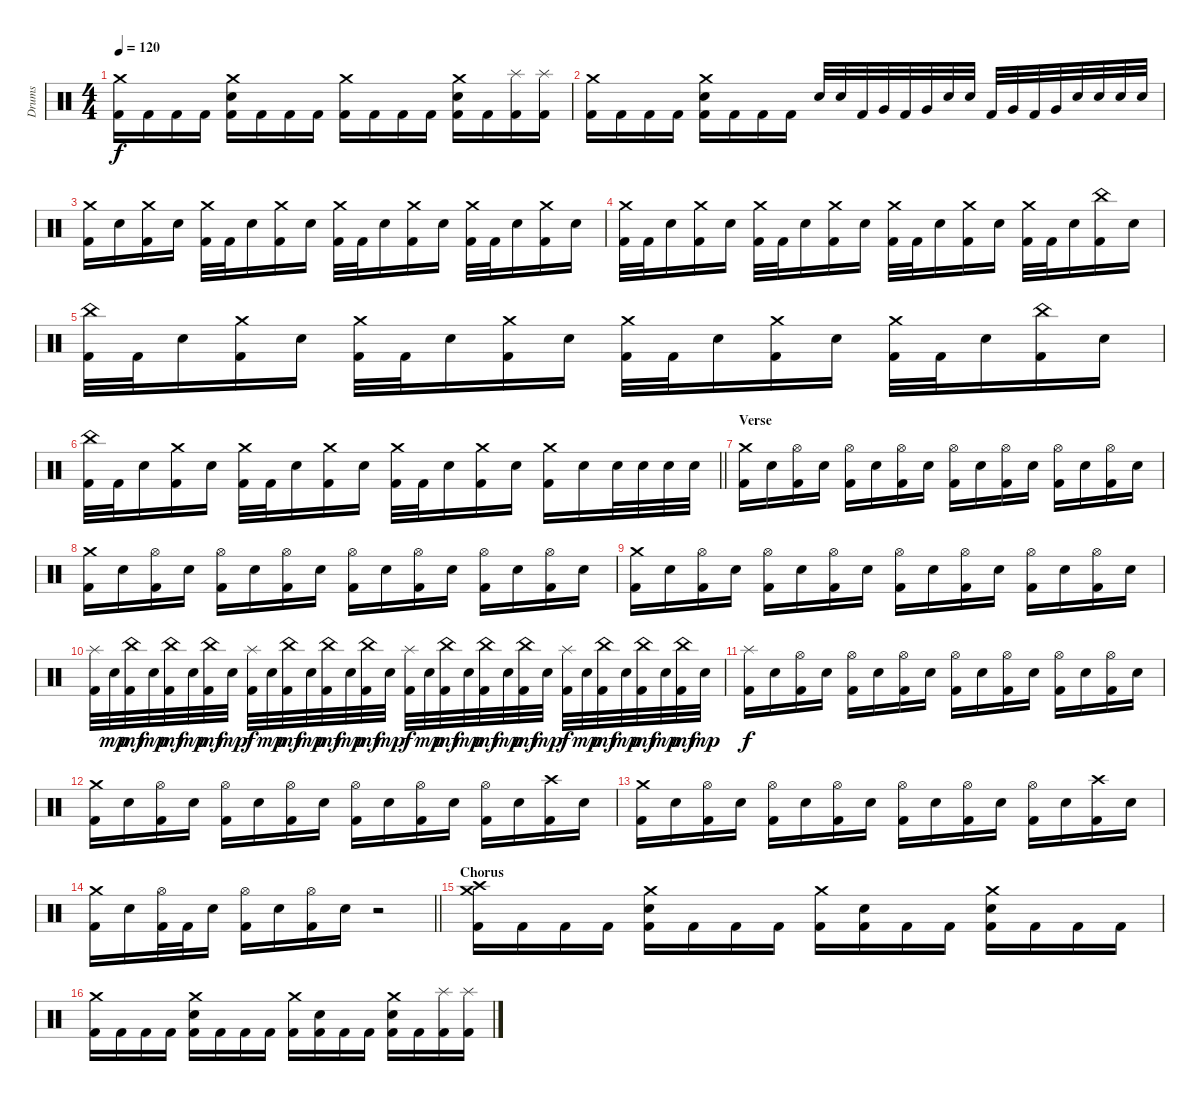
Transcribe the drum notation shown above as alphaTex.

\track ("Drums" "Drums") {instrument percussion}
\staff {score}
\articulation defaults
\ts (4 4)
\tempo 120
\clef neutral
\ks c
("Crash medium (hit)" "Kick (hit) 2").16{dy f} "Kick (hit) 2".16 "Kick (hit) 2".16 "Kick (hit) 2".16 ("Crash medium (hit)" "Electric Snare (hit)" "Kick (hit) 2").16 "Kick (hit) 2".16 "Kick (hit) 2".16 "Kick (hit) 2".16 ("Crash medium (hit)" "Kick (hit) 2").16 "Kick (hit) 2".16 "Kick (hit) 2".16 "Kick (hit) 2".16 ("Crash medium (hit)" "Electric Snare (hit)" "Kick (hit) 2").16 "Kick (hit) 2".16 ("Splash (hit)" "Kick (hit) 2").16 ("Splash (hit)" "Kick (hit) 2").16 |
("Crash medium (hit)" "Kick (hit) 2").16 "Kick (hit) 2".16 "Kick (hit) 2".16 "Kick (hit) 2".16 ("Crash medium (hit)" "Electric Snare (hit)" "Kick (hit) 2").16 "Kick (hit) 2".16 "Kick (hit) 2".16 "Kick (hit) 2".16 "Electric Snare (hit)".32 "Electric Snare (hit)".32 "Kick (hit) 2".32 "Very Low Tom (hit)".32 "Kick (hit) 2".32 "Very Low Tom (hit)".32 "Electric Snare (hit)".32 "Electric Snare (hit)".32 "Kick (hit) 2".32 "Very Low Tom (hit)".32 "Kick (hit) 2".32 "Very Low Tom (hit)".32 "Electric Snare (hit)".32 "Electric Snare (hit)".32 "Electric Snare (hit)".32 "Electric Snare (hit)".32 |
("Crash medium (hit)" "Kick (hit) 2").16 "Electric Snare (hit)".16 ("Crash medium (hit)" "Kick (hit) 2").16 "Electric Snare (hit)".16 ("Crash medium (hit)" "Kick (hit) 2").32 "Kick (hit) 2".32 "Electric Snare (hit)".16 ("Crash medium (hit)" "Kick (hit) 2").16 "Electric Snare (hit)".16 ("Crash medium (hit)" "Kick (hit) 2").32 "Kick (hit) 2".32 "Electric Snare (hit)".16 ("Crash medium (hit)" "Kick (hit) 2").16 "Electric Snare (hit)".16 ("Crash medium (hit)" "Kick (hit) 2").32 "Kick (hit) 2".32 "Electric Snare (hit)".16 ("Crash medium (hit)" "Kick (hit) 2").16 "Electric Snare (hit)".16 |
("Crash medium (hit)" "Kick (hit) 2").32 "Kick (hit) 2".32 "Electric Snare (hit)".16 ("Crash medium (hit)" "Kick (hit) 2").16 "Electric Snare (hit)".16 ("Crash medium (hit)" "Kick (hit) 2").32 "Kick (hit) 2".32 "Electric Snare (hit)".16 ("Crash medium (hit)" "Kick (hit) 2").16 "Electric Snare (hit)".16 ("Crash medium (hit)" "Kick (hit) 2").32 "Kick (hit) 2".32 "Electric Snare (hit)".16 ("Crash medium (hit)" "Kick (hit) 2").16 "Electric Snare (hit)".16 ("Crash medium (hit)" "Kick (hit) 2").32 "Kick (hit) 2".32 "Electric Snare (hit)".16 ("China (hit)" "Kick (hit) 2").16 "Electric Snare (hit)".16 |
("China (hit)" "Kick (hit) 2").32 "Kick (hit) 2".32 "Electric Snare (hit)".16 ("Crash medium (hit)" "Kick (hit) 2").16 "Electric Snare (hit)".16 ("Crash medium (hit)" "Kick (hit) 2").32 "Kick (hit) 2".32 "Electric Snare (hit)".16 ("Crash medium (hit)" "Kick (hit) 2").16 "Electric Snare (hit)".16 ("Crash medium (hit)" "Kick (hit) 2").32 "Kick (hit) 2".32 "Electric Snare (hit)".16 ("Crash medium (hit)" "Kick (hit) 2").16 "Electric Snare (hit)".16 ("Crash medium (hit)" "Kick (hit) 2").32 "Kick (hit) 2".32 "Electric Snare (hit)".16 ("China (hit)" "Kick (hit) 2").16 "Electric Snare (hit)".16 |
\barLineRight lightlight
("China (hit)" "Kick (hit) 2").32 "Kick (hit) 2".32 "Electric Snare (hit)".16 ("Crash medium (hit)" "Kick (hit) 2").16 "Electric Snare (hit)".16 ("Crash medium (hit)" "Kick (hit) 2").32 "Kick (hit) 2".32 "Electric Snare (hit)".16 ("Crash medium (hit)" "Kick (hit) 2").16 "Electric Snare (hit)".16 ("Crash medium (hit)" "Kick (hit) 2").32 "Kick (hit) 2".32 "Electric Snare (hit)".16 ("Crash medium (hit)" "Kick (hit) 2").16 "Electric Snare (hit)".16 ("Crash medium (hit)" "Kick (hit) 2").16 "Electric Snare (hit)".16 "Electric Snare (hit)".32 "Electric Snare (hit)".32 "Electric Snare (hit)".32 "Electric Snare (hit)".32 |
\section ("" "Verse")
("Crash medium (hit)" "Kick (hit) 2").16 "Electric Snare (hit)".16 ("Hi-Hat (open)" "Kick (hit) 2").16 "Electric Snare (hit)".16 ("Hi-Hat (open)" "Kick (hit) 2").16 "Electric Snare (hit)".16 ("Hi-Hat (open)" "Kick (hit) 2").16 "Electric Snare (hit)".16 ("Hi-Hat (open)" "Kick (hit) 2").16 "Electric Snare (hit)".16 ("Hi-Hat (open)" "Kick (hit) 2").16 "Electric Snare (hit)".16 ("Hi-Hat (open)" "Kick (hit) 2").16 "Electric Snare (hit)".16 ("Hi-Hat (open)" "Kick (hit) 2").16 "Electric Snare (hit)".16 |
("Crash medium (hit)" "Kick (hit) 2").16 "Electric Snare (hit)".16 ("Hi-Hat (open)" "Kick (hit) 2").16 "Electric Snare (hit)".16 ("Hi-Hat (open)" "Kick (hit) 2").16 "Electric Snare (hit)".16 ("Hi-Hat (open)" "Kick (hit) 2").16 "Electric Snare (hit)".16 ("Hi-Hat (open)" "Kick (hit) 2").16 "Electric Snare (hit)".16 ("Hi-Hat (open)" "Kick (hit) 2").16 "Electric Snare (hit)".16 ("Hi-Hat (open)" "Kick (hit) 2").16 "Electric Snare (hit)".16 ("Hi-Hat (open)" "Kick (hit) 2").16 "Electric Snare (hit)".16 |
("Crash medium (hit)" "Kick (hit) 2").16 "Electric Snare (hit)".16 ("Hi-Hat (open)" "Kick (hit) 2").16 "Electric Snare (hit)".16 ("Hi-Hat (open)" "Kick (hit) 2").16 "Electric Snare (hit)".16 ("Hi-Hat (open)" "Kick (hit) 2").16 "Electric Snare (hit)".16 ("Hi-Hat (open)" "Kick (hit) 2").16 "Electric Snare (hit)".16 ("Hi-Hat (open)" "Kick (hit) 2").16 "Electric Snare (hit)".16 ("Hi-Hat (open)" "Kick (hit) 2").16 "Electric Snare (hit)".16 ("Hi-Hat (open)" "Kick (hit) 2").16 "Electric Snare (hit)".16 |
("Splash (hit)" "Kick (hit) 2").32 "Electric Snare (hit)".32{dy mp} ("China (hit)" "Kick (hit) 2").32{dy mf} "Electric Snare (hit)".32{dy mp} ("China (hit)" "Kick (hit) 2").32{dy mf} "Electric Snare (hit)".32{dy mp} ("China (hit)" "Kick (hit) 2").32{dy mf} "Electric Snare (hit)".32{dy mp} ("Splash (hit)" "Kick (hit) 2").32{dy f} "Electric Snare (hit)".32{dy mp} ("China (hit)" "Kick (hit) 2").32{dy mf} "Electric Snare (hit)".32{dy mp} ("China (hit)" "Kick (hit) 2").32{dy mf} "Electric Snare (hit)".32{dy mp} ("China (hit)" "Kick (hit) 2").32{dy mf} "Electric Snare (hit)".32{dy mp} ("Splash (hit)" "Kick (hit) 2").32{dy f} "Electric Snare (hit)".32{dy mp} ("China (hit)" "Kick (hit) 2").32{dy mf} "Electric Snare (hit)".32{dy mp} ("China (hit)" "Kick (hit) 2").32{dy mf} "Electric Snare (hit)".32{dy mp} ("China (hit)" "Kick (hit) 2").32{dy mf} "Electric Snare (hit)".32{dy mp} ("Splash (hit)" "Kick (hit) 2").32{dy f} "Electric Snare (hit)".32{dy mp} ("China (hit)" "Kick (hit) 2").32{dy mf} "Electric Snare (hit)".32{dy mp} ("China (hit)" "Kick (hit) 2").32{dy mf} "Electric Snare (hit)".32{dy mp} ("China (hit)" "Kick (hit) 2").32{dy mf} "Electric Snare (hit)".32{dy mp} |
("Splash (hit)" "Kick (hit) 2").16{dy f} "Electric Snare (hit)".16 ("Hi-Hat (open)" "Kick (hit) 2").16 "Electric Snare (hit)".16 ("Hi-Hat (open)" "Kick (hit) 2").16 "Electric Snare (hit)".16 ("Hi-Hat (open)" "Kick (hit) 2").16 "Electric Snare (hit)".16 ("Hi-Hat (open)" "Kick (hit) 2").16 "Electric Snare (hit)".16 ("Hi-Hat (open)" "Kick (hit) 2").16 "Electric Snare (hit)".16 ("Hi-Hat (open)" "Kick (hit) 2").16 "Electric Snare (hit)".16 ("Hi-Hat (open)" "Kick (hit) 2").16 "Electric Snare (hit)".16 |
("Crash medium (hit)" "Kick (hit) 2").16 "Electric Snare (hit)".16 ("Hi-Hat (open)" "Kick (hit) 2").16 "Electric Snare (hit)".16 ("Hi-Hat (open)" "Kick (hit) 2").16 "Electric Snare (hit)".16 ("Hi-Hat (open)" "Kick (hit) 2").16 "Electric Snare (hit)".16 ("Hi-Hat (open)" "Kick (hit) 2").16 "Electric Snare (hit)".16 ("Hi-Hat (open)" "Kick (hit) 2").16 "Electric Snare (hit)".16 ("Hi-Hat (open)" "Kick (hit) 2").16 "Electric Snare (hit)".16 ("Crash high (hit)" "Kick (hit) 2").16 "Electric Snare (hit)".16 |
("Crash medium (hit)" "Kick (hit) 2").16 "Electric Snare (hit)".16 ("Hi-Hat (open)" "Kick (hit) 2").16 "Electric Snare (hit)".16 ("Hi-Hat (open)" "Kick (hit) 2").16 "Electric Snare (hit)".16 ("Hi-Hat (open)" "Kick (hit) 2").16 "Electric Snare (hit)".16 ("Hi-Hat (open)" "Kick (hit) 2").16 "Electric Snare (hit)".16 ("Hi-Hat (open)" "Kick (hit) 2").16 "Electric Snare (hit)".16 ("Hi-Hat (open)" "Kick (hit) 2").16 "Electric Snare (hit)".16 ("Crash high (hit)" "Kick (hit) 2").16 "Electric Snare (hit)".16 |
\barLineRight lightlight
("Crash medium (hit)" "Kick (hit) 2").16 "Electric Snare (hit)".16 ("Hi-Hat (open)" "Kick (hit) 2").32 "Kick (hit) 2".32 "Electric Snare (hit)".16 ("Hi-Hat (open)" "Kick (hit) 2").16 "Electric Snare (hit)".16 ("Hi-Hat (open)" "Kick (hit) 2").16 "Electric Snare (hit)".16 r.2 |
\section ("" "Chorus")
("Crash medium (hit)" "Crash high (hit)" "Kick (hit) 2").16 "Kick (hit) 2".16 "Kick (hit) 2".16 "Kick (hit) 2".16 ("Crash medium (hit)" "Electric Snare (hit)" "Kick (hit) 2").16 "Kick (hit) 2".16 "Kick (hit) 2".16 "Kick (hit) 2".16 ("Crash medium (hit)" "Kick (hit) 2").16 ("Electric Snare (hit)" "Kick (hit) 2").16 "Kick (hit) 2".16 "Kick (hit) 2".16 ("Crash medium (hit)" "Electric Snare (hit)" "Kick (hit) 2").16 "Kick (hit) 2".16 "Kick (hit) 2".16 "Kick (hit) 2".16 |
("Crash medium (hit)" "Kick (hit) 2").16 "Kick (hit) 2".16 "Kick (hit) 2".16 "Kick (hit) 2".16 ("Crash medium (hit)" "Electric Snare (hit)" "Kick (hit) 2").16 "Kick (hit) 2".16 "Kick (hit) 2".16 "Kick (hit) 2".16 ("Crash medium (hit)" "Kick (hit) 2").16 ("Electric Snare (hit)" "Kick (hit) 2").16 "Kick (hit) 2".16 "Kick (hit) 2".16 ("Crash medium (hit)" "Electric Snare (hit)" "Kick (hit) 2").16 "Kick (hit) 2".16 ("Splash (hit)" "Kick (hit) 2").16 ("Splash (hit)" "Kick (hit) 2").16
